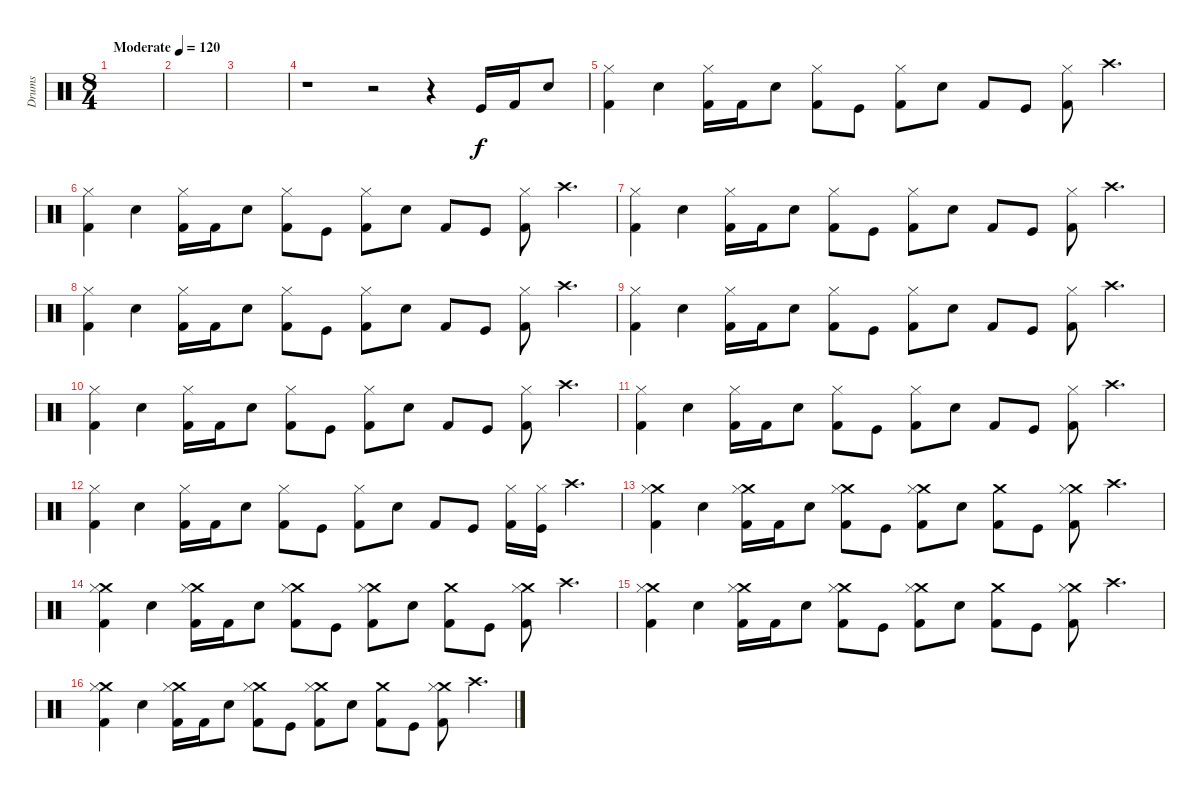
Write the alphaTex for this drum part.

\track ("Drums" "Drums") {instrument percussion}
\staff {score}
\articulation defaults
\ts (8 4)
\tempo (120 "Moderate")
\clef neutral
\ks c
|
|
|
r.1 r.2 r.4 "Kick (hit)".16 "Kick (hit) 2".16 "Snare (hit) 2".8 |
("Hi-Hat (closed)" "Kick (hit) 2").4 "Snare (hit) 2".4 ("Hi-Hat (closed)" "Kick (hit) 2").16 "Kick (hit) 2".16 "Snare (hit) 2".8 ("Hi-Hat (closed)" "Kick (hit) 2").8 "Kick (hit)".8 ("Hi-Hat (closed)" "Kick (hit) 2").8 "Snare (hit) 2".8 "Kick (hit) 2".8 "Kick (hit)".8 ("Hi-Hat (closed)" "Kick (hit) 2").8 "Crash high (hit)".4{d} |
("Hi-Hat (closed)" "Kick (hit) 2").4 "Snare (hit) 2".4 ("Hi-Hat (closed)" "Kick (hit) 2").16 "Kick (hit) 2".16 "Snare (hit) 2".8 ("Hi-Hat (closed)" "Kick (hit) 2").8 "Kick (hit)".8 ("Hi-Hat (closed)" "Kick (hit) 2").8 "Snare (hit) 2".8 "Kick (hit) 2".8 "Kick (hit)".8 ("Hi-Hat (closed)" "Kick (hit) 2").8 "Crash high (hit)".4{d} |
("Hi-Hat (closed)" "Kick (hit) 2").4 "Snare (hit) 2".4 ("Hi-Hat (closed)" "Kick (hit) 2").16 "Kick (hit) 2".16 "Snare (hit) 2".8 ("Hi-Hat (closed)" "Kick (hit) 2").8 "Kick (hit)".8 ("Hi-Hat (closed)" "Kick (hit) 2").8 "Snare (hit) 2".8 "Kick (hit) 2".8 "Kick (hit)".8 ("Hi-Hat (closed)" "Kick (hit) 2").8 "Crash high (hit)".4{d} |
("Hi-Hat (closed)" "Kick (hit) 2").4 "Snare (hit) 2".4 ("Hi-Hat (closed)" "Kick (hit) 2").16 "Kick (hit) 2".16 "Snare (hit) 2".8 ("Hi-Hat (closed)" "Kick (hit) 2").8 "Kick (hit)".8 ("Hi-Hat (closed)" "Kick (hit) 2").8 "Snare (hit) 2".8 "Kick (hit) 2".8 "Kick (hit)".8 ("Hi-Hat (closed)" "Kick (hit) 2").8 "Crash high (hit)".4{d} |
("Hi-Hat (closed)" "Kick (hit) 2").4 "Snare (hit) 2".4 ("Hi-Hat (closed)" "Kick (hit) 2").16 "Kick (hit) 2".16 "Snare (hit) 2".8 ("Hi-Hat (closed)" "Kick (hit) 2").8 "Kick (hit)".8 ("Hi-Hat (closed)" "Kick (hit) 2").8 "Snare (hit) 2".8 "Kick (hit) 2".8 "Kick (hit)".8 ("Hi-Hat (closed)" "Kick (hit) 2").8 "Crash high (hit)".4{d} |
("Hi-Hat (closed)" "Kick (hit) 2").4 "Snare (hit) 2".4 ("Hi-Hat (closed)" "Kick (hit) 2").16 "Kick (hit) 2".16 "Snare (hit) 2".8 ("Hi-Hat (closed)" "Kick (hit) 2").8 "Kick (hit)".8 ("Hi-Hat (closed)" "Kick (hit) 2").8 "Snare (hit) 2".8 "Kick (hit) 2".8 "Kick (hit)".8 ("Hi-Hat (closed)" "Kick (hit) 2").8 "Crash high (hit)".4{d} |
("Hi-Hat (closed)" "Kick (hit) 2").4 "Snare (hit) 2".4 ("Hi-Hat (closed)" "Kick (hit) 2").16 "Kick (hit) 2".16 "Snare (hit) 2".8 ("Hi-Hat (closed)" "Kick (hit) 2").8 "Kick (hit)".8 ("Hi-Hat (closed)" "Kick (hit) 2").8 "Snare (hit) 2".8 "Kick (hit) 2".8 "Kick (hit)".8 ("Hi-Hat (closed)" "Kick (hit) 2").8 "Crash high (hit)".4{d} |
("Hi-Hat (closed)" "Kick (hit) 2").4 "Snare (hit) 2".4 ("Hi-Hat (closed)" "Kick (hit) 2").16 "Kick (hit) 2".16 "Snare (hit) 2".8 ("Hi-Hat (closed)" "Kick (hit) 2").8 "Kick (hit)".8 ("Hi-Hat (closed)" "Kick (hit) 2").8 "Snare (hit) 2".8 "Kick (hit) 2".8 "Kick (hit)".8 ("Hi-Hat (closed)" "Kick (hit) 2").16 ("Hi-Hat (closed)" "Kick (hit)").16 "Crash high (hit)".4{d} |
("Crash medium (hit)" "Hi-Hat (closed)" "Kick (hit) 2").4 "Snare (hit) 2".4 ("Crash medium (hit)" "Hi-Hat (closed)" "Kick (hit) 2").16 "Kick (hit) 2".16 "Snare (hit) 2".8 ("Crash medium (hit)" "Hi-Hat (closed)" "Kick (hit) 2").8 "Kick (hit)".8 ("Crash medium (hit)" "Hi-Hat (closed)" "Kick (hit) 2").8 "Snare (hit) 2".8 ("Crash medium (hit)" "Kick (hit) 2").8 "Kick (hit)".8 ("Crash medium (hit)" "Hi-Hat (closed)" "Kick (hit) 2").8 "Crash high (hit)".4{d} |
("Crash medium (hit)" "Hi-Hat (closed)" "Kick (hit) 2").4 "Snare (hit) 2".4 ("Crash medium (hit)" "Hi-Hat (closed)" "Kick (hit) 2").16 "Kick (hit) 2".16 "Snare (hit) 2".8 ("Crash medium (hit)" "Hi-Hat (closed)" "Kick (hit) 2").8 "Kick (hit)".8 ("Crash medium (hit)" "Hi-Hat (closed)" "Kick (hit) 2").8 "Snare (hit) 2".8 ("Crash medium (hit)" "Kick (hit) 2").8 "Kick (hit)".8 ("Crash medium (hit)" "Hi-Hat (closed)" "Kick (hit) 2").8 "Crash high (hit)".4{d} |
("Crash medium (hit)" "Hi-Hat (closed)" "Kick (hit) 2").4 "Snare (hit) 2".4 ("Crash medium (hit)" "Hi-Hat (closed)" "Kick (hit) 2").16 "Kick (hit) 2".16 "Snare (hit) 2".8 ("Crash medium (hit)" "Hi-Hat (closed)" "Kick (hit) 2").8 "Kick (hit)".8 ("Crash medium (hit)" "Hi-Hat (closed)" "Kick (hit) 2").8 "Snare (hit) 2".8 ("Crash medium (hit)" "Kick (hit) 2").8 "Kick (hit)".8 ("Crash medium (hit)" "Hi-Hat (closed)" "Kick (hit) 2").8 "Crash high (hit)".4{d} |
("Crash medium (hit)" "Hi-Hat (closed)" "Kick (hit) 2").4 "Snare (hit) 2".4 ("Crash medium (hit)" "Hi-Hat (closed)" "Kick (hit) 2").16 "Kick (hit) 2".16 "Snare (hit) 2".8 ("Crash medium (hit)" "Hi-Hat (closed)" "Kick (hit) 2").8 "Kick (hit)".8 ("Crash medium (hit)" "Hi-Hat (closed)" "Kick (hit) 2").8 "Snare (hit) 2".8 ("Crash medium (hit)" "Kick (hit) 2").8 "Kick (hit)".8 ("Crash medium (hit)" "Hi-Hat (closed)" "Kick (hit) 2").8 "Crash high (hit)".4{d}
